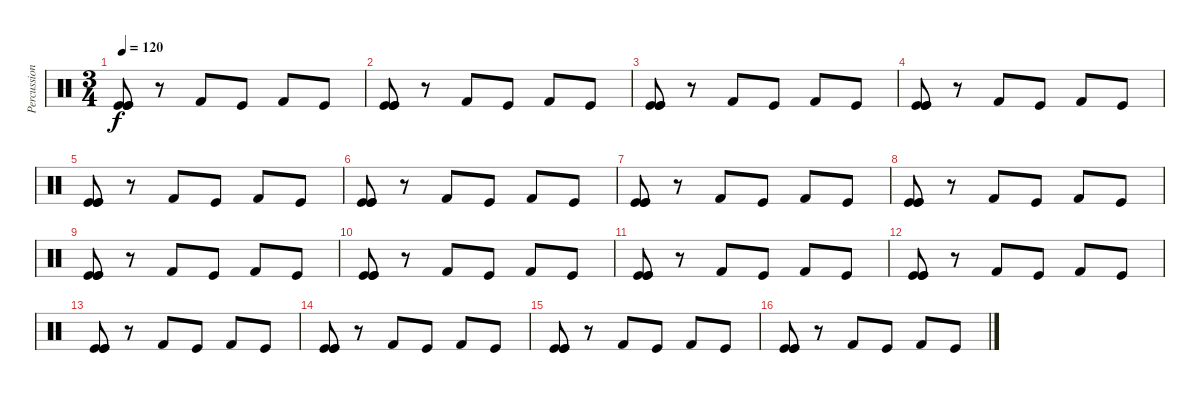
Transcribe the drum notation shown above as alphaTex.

\track ("Percussions" "Percussion") {instrument percussion}
\staff {score}
\articulation defaults
\ts (3 4)
\tempo 120
\clef neutral
\ks c
("Kick (hit)" "Kick (hit)" "Kick (hit)").8{dy f} r.8 "Kick (hit) 2".8 "Kick (hit)".8 "Kick (hit) 2".8 "Kick (hit)".8 |
("Kick (hit)" "Kick (hit)" "Kick (hit)").8 r.8 "Kick (hit) 2".8 "Kick (hit)".8 "Kick (hit) 2".8 "Kick (hit)".8 |
("Kick (hit)" "Kick (hit)" "Kick (hit)").8 r.8 "Kick (hit) 2".8 "Kick (hit)".8 "Kick (hit) 2".8 "Kick (hit)".8 |
("Kick (hit)" "Kick (hit)" "Kick (hit)").8 r.8 "Kick (hit) 2".8 "Kick (hit)".8 "Kick (hit) 2".8 "Kick (hit)".8 |
("Kick (hit)" "Kick (hit)" "Kick (hit)").8 r.8 "Kick (hit) 2".8 "Kick (hit)".8 "Kick (hit) 2".8 "Kick (hit)".8 |
("Kick (hit)" "Kick (hit)" "Kick (hit)").8 r.8 "Kick (hit) 2".8 "Kick (hit)".8 "Kick (hit) 2".8 "Kick (hit)".8 |
("Kick (hit)" "Kick (hit)" "Kick (hit)").8 r.8 "Kick (hit) 2".8 "Kick (hit)".8 "Kick (hit) 2".8 "Kick (hit)".8 |
("Kick (hit)" "Kick (hit)" "Kick (hit)").8 r.8 "Kick (hit) 2".8 "Kick (hit)".8 "Kick (hit) 2".8 "Kick (hit)".8 |
("Kick (hit)" "Kick (hit)" "Kick (hit)").8 r.8 "Kick (hit) 2".8 "Kick (hit)".8 "Kick (hit) 2".8 "Kick (hit)".8 |
("Kick (hit)" "Kick (hit)" "Kick (hit)").8 r.8 "Kick (hit) 2".8 "Kick (hit)".8 "Kick (hit) 2".8 "Kick (hit)".8 |
("Kick (hit)" "Kick (hit)" "Kick (hit)").8 r.8 "Kick (hit) 2".8 "Kick (hit)".8 "Kick (hit) 2".8 "Kick (hit)".8 |
("Kick (hit)" "Kick (hit)" "Kick (hit)").8 r.8 "Kick (hit) 2".8 "Kick (hit)".8 "Kick (hit) 2".8 "Kick (hit)".8 |
("Kick (hit)" "Kick (hit)" "Kick (hit)").8 r.8 "Kick (hit) 2".8 "Kick (hit)".8 "Kick (hit) 2".8 "Kick (hit)".8 |
("Kick (hit)" "Kick (hit)" "Kick (hit)").8 r.8 "Kick (hit) 2".8 "Kick (hit)".8 "Kick (hit) 2".8 "Kick (hit)".8 |
("Kick (hit)" "Kick (hit)" "Kick (hit)").8 r.8 "Kick (hit) 2".8 "Kick (hit)".8 "Kick (hit) 2".8 "Kick (hit)".8 |
("Kick (hit)" "Kick (hit)" "Kick (hit)").8 r.8 "Kick (hit) 2".8 "Kick (hit)".8 "Kick (hit) 2".8 "Kick (hit)".8
